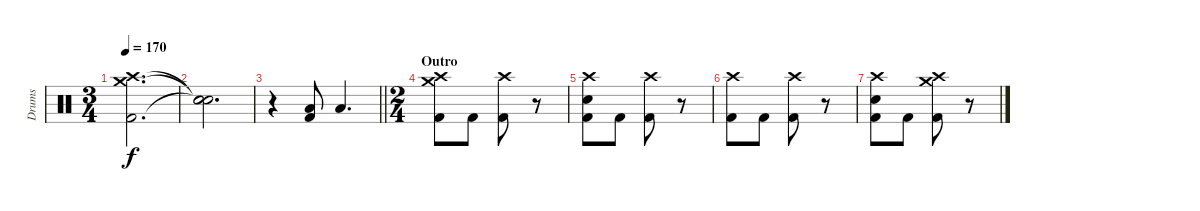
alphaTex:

\track ("Drums" "Drums") {instrument percussion}
\staff {score}
\articulation defaults
\ts (3 4)
\tempo 170
\clef neutral
\ks c
("Crash medium (hit)" "Crash high (hit)" "Kick (hit) 2").2{d dy f} |
("Snare (hit)"{t} "Snare (hit)"{t} "Snare (hit)"{t}).2{d} |
\barLineRight lightlight
r.4 ("Low Tom (hit)" "Kick (hit) 2").8 "Low Tom (hit)".4{d} |
\ts (2 4)
\section ("" "Outro")
("Crash medium (hit)" "Crash high (hit)" "Kick (hit) 2").8 "Kick (hit) 2".8 ("Crash high (hit)" "Kick (hit) 2").8 r.8 |
("Crash high (hit)" "Electric Snare (hit)" "Kick (hit) 2").8 "Kick (hit) 2".8 ("Crash high (hit)" "Kick (hit) 2").8 r.8 |
("Crash high (hit)" "Kick (hit) 2").8 "Kick (hit) 2".8 ("Crash high (hit)" "Kick (hit) 2").8 r.8 |
("Crash high (hit)" "Electric Snare (hit)" "Kick (hit) 2").8 "Kick (hit) 2".8 ("Crash medium (hit)" "Crash high (hit)" "Kick (hit) 2").8 r.8
